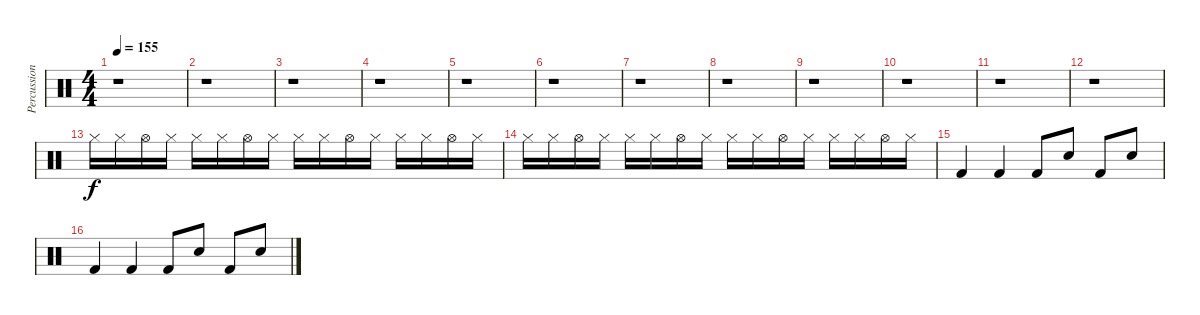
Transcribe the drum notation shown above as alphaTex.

\track ("Percussion" "Percussion") {instrument percussion}
\staff {score}
\articulation defaults
\ts (4 4)
\tempo 155
\clef neutral
\ks c
r.1{dy f} |
r.1 |
r.1 |
r.1 |
r.1 |
r.1 |
r.1 |
r.1 |
r.1 |
r.1 |
r.1 |
r.1 |
"Hi-Hat (closed)".16 "Hi-Hat (closed)".16 "Hi-Hat (open)".16 "Hi-Hat (closed)".16 "Hi-Hat (closed)".16 "Hi-Hat (closed)".16 "Hi-Hat (open)".16 "Hi-Hat (closed)".16 "Hi-Hat (closed)".16 "Hi-Hat (closed)".16 "Hi-Hat (open)".16 "Hi-Hat (closed)".16 "Hi-Hat (closed)".16 "Hi-Hat (closed)".16 "Hi-Hat (open)".16 "Hi-Hat (closed)".16 |
"Hi-Hat (closed)".16 "Hi-Hat (closed)".16 "Hi-Hat (open)".16 "Hi-Hat (closed)".16 "Hi-Hat (closed)".16 "Hi-Hat (closed)".16 "Hi-Hat (open)".16 "Hi-Hat (closed)".16 "Hi-Hat (closed)".16 "Hi-Hat (closed)".16 "Hi-Hat (open)".16 "Hi-Hat (closed)".16 "Hi-Hat (closed)".16 "Hi-Hat (closed)".16 "Hi-Hat (open)".16 "Hi-Hat (closed)".16 |
"Kick (hit) 2".4 "Kick (hit) 2".4 "Kick (hit) 2".8 "Snare (hit) 2".8 "Kick (hit) 2".8 "Snare (hit) 2".8 |
"Kick (hit) 2".4 "Kick (hit) 2".4 "Kick (hit) 2".8 "Snare (hit) 2".8 "Kick (hit) 2".8 "Snare (hit) 2".8
